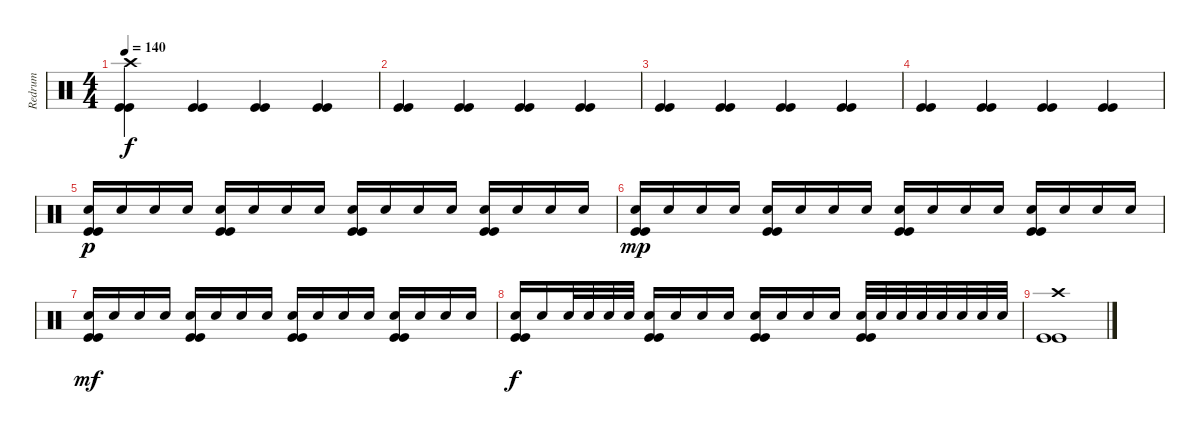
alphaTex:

\track ("Redrum" "Redrum") {instrument percussion}
\staff {score}
\articulation defaults
\ts (4 4)
\tempo 140
\clef neutral
\ks c
("Crash high (hit)" "Kick (hit)" "Kick (hit)").4{dy f} ("Kick (hit)" "Kick (hit)").4 ("Kick (hit)" "Kick (hit)").4 ("Kick (hit)" "Kick (hit)").4 |
("Kick (hit)" "Kick (hit)").4 ("Kick (hit)" "Kick (hit)").4 ("Kick (hit)" "Kick (hit)").4 ("Kick (hit)" "Kick (hit)").4 |
("Kick (hit)" "Kick (hit)").4 ("Kick (hit)" "Kick (hit)").4 ("Kick (hit)" "Kick (hit)").4 ("Kick (hit)" "Kick (hit)").4 |
("Kick (hit)" "Kick (hit)").4 ("Kick (hit)" "Kick (hit)").4 ("Kick (hit)" "Kick (hit)").4 ("Kick (hit)" "Kick (hit)").4 |
("Snare (hit) 2" "Kick (hit)" "Kick (hit)").16{dy p} "Snare (hit) 2".16 "Snare (hit) 2".16 "Snare (hit) 2".16 ("Snare (hit) 2" "Kick (hit)" "Kick (hit)").16 "Snare (hit) 2".16 "Snare (hit) 2".16 "Snare (hit) 2".16 ("Snare (hit) 2" "Kick (hit)" "Kick (hit)").16 "Snare (hit) 2".16 "Snare (hit) 2".16 "Snare (hit) 2".16 ("Snare (hit) 2" "Kick (hit)" "Kick (hit)").16 "Snare (hit) 2".16 "Snare (hit) 2".16 "Snare (hit) 2".16 |
("Snare (hit) 2" "Kick (hit)" "Kick (hit)").16{dy mp} "Snare (hit) 2".16 "Snare (hit) 2".16 "Snare (hit) 2".16 ("Snare (hit) 2" "Kick (hit)" "Kick (hit)").16 "Snare (hit) 2".16 "Snare (hit) 2".16 "Snare (hit) 2".16 ("Snare (hit) 2" "Kick (hit)" "Kick (hit)").16 "Snare (hit) 2".16 "Snare (hit) 2".16 "Snare (hit) 2".16 ("Snare (hit) 2" "Kick (hit)" "Kick (hit)").16 "Snare (hit) 2".16 "Snare (hit) 2".16 "Snare (hit) 2".16 |
("Snare (hit) 2" "Kick (hit)" "Kick (hit)").16{dy mf} "Snare (hit) 2".16 "Snare (hit) 2".16 "Snare (hit) 2".16 ("Snare (hit) 2" "Kick (hit)" "Kick (hit)").16 "Snare (hit) 2".16 "Snare (hit) 2".16 "Snare (hit) 2".16 ("Snare (hit) 2" "Kick (hit)" "Kick (hit)").16 "Snare (hit) 2".16 "Snare (hit) 2".16 "Snare (hit) 2".16 ("Snare (hit) 2" "Kick (hit)" "Kick (hit)").16 "Snare (hit) 2".16 "Snare (hit) 2".16 "Snare (hit) 2".16 |
("Snare (hit) 2" "Kick (hit)" "Kick (hit)").16{dy f} "Snare (hit) 2".16 "Snare (hit) 2".32 "Snare (hit) 2".32 "Snare (hit) 2".32 "Snare (hit) 2".32 ("Snare (hit) 2" "Kick (hit)" "Kick (hit)").16 "Snare (hit) 2".16 "Snare (hit) 2".16 "Snare (hit) 2".16 ("Snare (hit) 2" "Kick (hit)" "Kick (hit)").16 "Snare (hit) 2".16 "Snare (hit) 2".16 "Snare (hit) 2".16 ("Snare (hit) 2" "Kick (hit)" "Kick (hit)").32 "Snare (hit) 2".32 "Snare (hit) 2".32 "Snare (hit) 2".32 "Snare (hit) 2".32 "Snare (hit) 2".32 "Snare (hit) 2".32 "Snare (hit) 2".32 |
("Crash high (hit)" "Kick (hit)" "Kick (hit)").1
